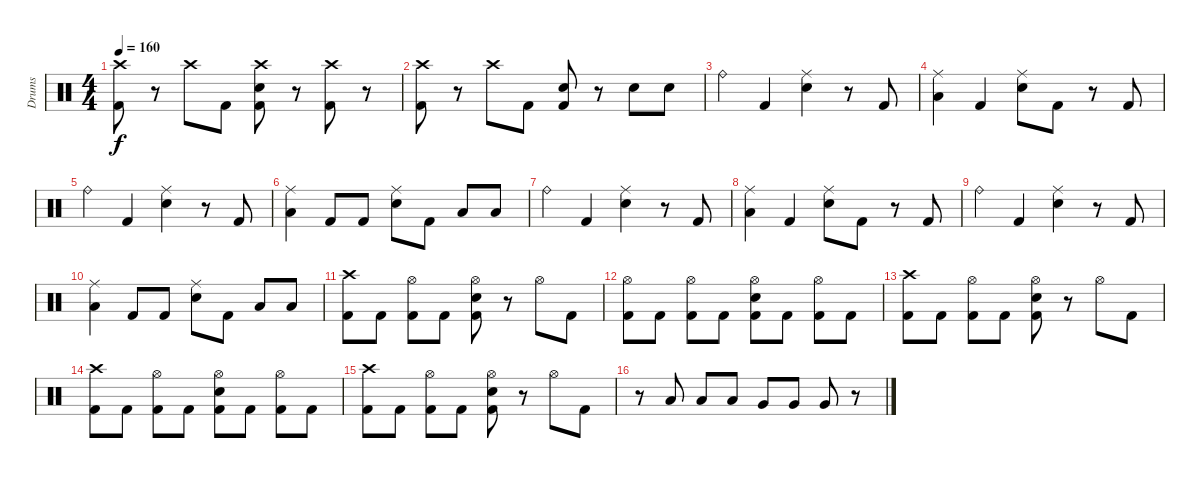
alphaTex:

\track ("Drums" "Drums") {instrument percussion}
\staff {score}
\articulation defaults
\ts (4 4)
\tempo 160
\clef neutral
\ks c
("Crash high (hit)" "Kick (hit) 2").8{dy f} r.8 "Crash high (hit)".8 "Kick (hit) 2".8 ("Crash high (hit)" "Electric Snare (hit)" "Kick (hit) 2").8 r.8 ("Crash high (hit)" "Kick (hit) 2").8 r.8 |
("Crash high (hit)" "Kick (hit) 2").8 r.8 "Crash high (hit)".8 "Kick (hit) 2".8 ("Electric Snare (hit)" "Kick (hit) 2").8 r.8 "Electric Snare (hit)".8 "Electric Snare (hit)".8 |
\section ("" " ")
"Ride (bell)".4 "Kick (hit) 2".4 ("Ride (middle)" "Electric Snare (hit)").4 r.8 "Kick (hit) 2".8 |
("Ride (middle)" "Low Tom (hit)").4 "Kick (hit) 2".4 ("Ride (middle)" "Electric Snare (hit)").8 "Kick (hit) 2".8 r.8 "Kick (hit) 2".8 |
"Ride (bell)".4 "Kick (hit) 2".4 ("Ride (middle)" "Electric Snare (hit)").4 r.8 "Kick (hit) 2".8 |
("Ride (middle)" "Low Tom (hit)").4 "Kick (hit) 2".8 "Kick (hit) 2".8 ("Ride (middle)" "Electric Snare (hit)").8 "Kick (hit) 2".8 "Low Tom (hit)".8 "Low Tom (hit)".8 |
"Ride (bell)".4 "Kick (hit) 2".4 ("Ride (middle)" "Electric Snare (hit)").4 r.8 "Kick (hit) 2".8 |
("Ride (middle)" "Low Tom (hit)").4 "Kick (hit) 2".4 ("Ride (middle)" "Electric Snare (hit)").8 "Kick (hit) 2".8 r.8 "Kick (hit) 2".8 |
"Ride (bell)".4 "Kick (hit) 2".4 ("Ride (middle)" "Electric Snare (hit)").4 r.8 "Kick (hit) 2".8 |
("Ride (middle)" "Low Tom (hit)").4 "Kick (hit) 2".8 "Kick (hit) 2".8 ("Ride (middle)" "Electric Snare (hit)").8 "Kick (hit) 2".8 "Low Tom (hit)".8 "Low Tom (hit)".8 |
("Crash high (hit)" "Kick (hit) 2").8 "Kick (hit) 2".8 ("Hi-Hat (open)" "Kick (hit) 2").8 "Kick (hit) 2".8 ("Hi-Hat (open)" "Electric Snare (hit)" "Kick (hit) 2").8 r.8 "Hi-Hat (open)".8 "Kick (hit) 2".8 |
("Hi-Hat (open)" "Kick (hit) 2").8 "Kick (hit) 2".8 ("Hi-Hat (open)" "Kick (hit) 2").8 "Kick (hit) 2".8 ("Hi-Hat (open)" "Electric Snare (hit)" "Kick (hit) 2").8 "Kick (hit) 2".8 ("Hi-Hat (open)" "Kick (hit) 2").8 "Kick (hit) 2".8 |
("Crash high (hit)" "Kick (hit) 2").8 "Kick (hit) 2".8 ("Hi-Hat (open)" "Kick (hit) 2").8 "Kick (hit) 2".8 ("Hi-Hat (open)" "Electric Snare (hit)" "Kick (hit) 2").8 r.8 "Hi-Hat (open)".8 "Kick (hit) 2".8 |
("Crash high (hit)" "Kick (hit) 2").8 "Kick (hit) 2".8 ("Hi-Hat (open)" "Kick (hit) 2").8 "Kick (hit) 2".8 ("Hi-Hat (open)" "Electric Snare (hit)" "Kick (hit) 2").8 "Kick (hit) 2".8 ("Hi-Hat (open)" "Kick (hit) 2").8 "Kick (hit) 2".8 |
("Crash high (hit)" "Kick (hit) 2").8 "Kick (hit) 2".8 ("Hi-Hat (open)" "Kick (hit) 2").8 "Kick (hit) 2".8 ("Hi-Hat (open)" "Electric Snare (hit)" "Kick (hit) 2").8 r.8 "Hi-Hat (open)".8 "Kick (hit) 2".8 |
r.8 "Low Tom (hit)".8 "Low Tom (hit)".8 "Low Tom (hit)".8 "Very Low Tom (hit)".8 "Very Low Tom (hit)".8 "Very Low Tom (hit)".8 r.8
